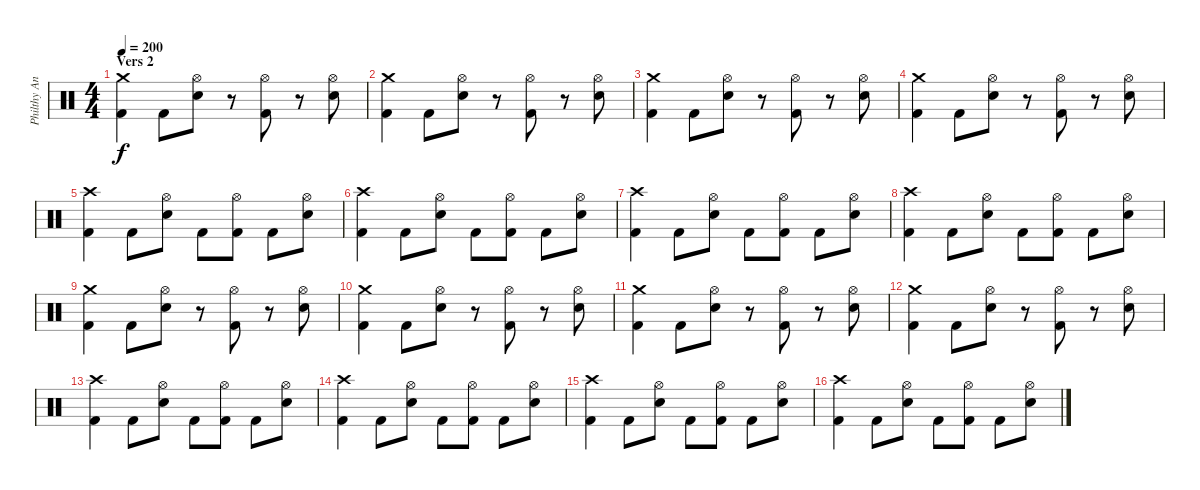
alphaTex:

\track ("Philthy Animal Taylor" "Philthy An") {instrument percussion}
\staff {score}
\articulation defaults
\ts (4 4)
\section ("" "Vers 2")
\tempo 200
\clef neutral
\ks c
("Crash medium (hit)" "Kick (hit) 2").4{dy f} "Kick (hit) 2".8 ("Hi-Hat (open)" "Electric Snare (hit)").8 r.8 ("Hi-Hat (open)" "Kick (hit) 2").8 r.8 ("Hi-Hat (open)" "Electric Snare (hit)").8 |
("Crash medium (hit)" "Kick (hit) 2").4 "Kick (hit) 2".8 ("Hi-Hat (open)" "Electric Snare (hit)").8 r.8 ("Hi-Hat (open)" "Kick (hit) 2").8 r.8 ("Hi-Hat (open)" "Electric Snare (hit)").8 |
("Crash medium (hit)" "Kick (hit) 2").4 "Kick (hit) 2".8 ("Hi-Hat (open)" "Electric Snare (hit)").8 r.8 ("Hi-Hat (open)" "Kick (hit) 2").8 r.8 ("Hi-Hat (open)" "Electric Snare (hit)").8 |
("Crash medium (hit)" "Kick (hit) 2").4 "Kick (hit) 2".8 ("Hi-Hat (open)" "Electric Snare (hit)").8 r.8 ("Hi-Hat (open)" "Kick (hit) 2").8 r.8 ("Hi-Hat (open)" "Electric Snare (hit)").8 |
("Crash high (hit)" "Kick (hit) 2").4 "Kick (hit) 2".8 ("Hi-Hat (open)" "Electric Snare (hit)").8 "Kick (hit) 2".8 ("Hi-Hat (open)" "Kick (hit) 2").8 "Kick (hit) 2".8 ("Hi-Hat (open)" "Electric Snare (hit)").8 |
("Crash high (hit)" "Kick (hit) 2").4 "Kick (hit) 2".8 ("Hi-Hat (open)" "Electric Snare (hit)").8 "Kick (hit) 2".8 ("Hi-Hat (open)" "Kick (hit) 2").8 "Kick (hit) 2".8 ("Hi-Hat (open)" "Electric Snare (hit)").8 |
("Crash high (hit)" "Kick (hit) 2").4 "Kick (hit) 2".8 ("Hi-Hat (open)" "Electric Snare (hit)").8 "Kick (hit) 2".8 ("Hi-Hat (open)" "Kick (hit) 2").8 "Kick (hit) 2".8 ("Hi-Hat (open)" "Electric Snare (hit)").8 |
("Crash high (hit)" "Kick (hit) 2").4 "Kick (hit) 2".8 ("Hi-Hat (open)" "Electric Snare (hit)").8 "Kick (hit) 2".8 ("Hi-Hat (open)" "Kick (hit) 2").8 "Kick (hit) 2".8 ("Hi-Hat (open)" "Electric Snare (hit)").8 |
("Crash medium (hit)" "Kick (hit) 2").4 "Kick (hit) 2".8 ("Hi-Hat (open)" "Electric Snare (hit)").8 r.8 ("Hi-Hat (open)" "Kick (hit) 2").8 r.8 ("Hi-Hat (open)" "Electric Snare (hit)").8 |
("Crash medium (hit)" "Kick (hit) 2").4 "Kick (hit) 2".8 ("Hi-Hat (open)" "Electric Snare (hit)").8 r.8 ("Hi-Hat (open)" "Kick (hit) 2").8 r.8 ("Hi-Hat (open)" "Electric Snare (hit)").8 |
("Crash medium (hit)" "Kick (hit) 2").4 "Kick (hit) 2".8 ("Hi-Hat (open)" "Electric Snare (hit)").8 r.8 ("Hi-Hat (open)" "Kick (hit) 2").8 r.8 ("Hi-Hat (open)" "Electric Snare (hit)").8 |
("Crash medium (hit)" "Kick (hit) 2").4 "Kick (hit) 2".8 ("Hi-Hat (open)" "Electric Snare (hit)").8 r.8 ("Hi-Hat (open)" "Kick (hit) 2").8 r.8 ("Hi-Hat (open)" "Electric Snare (hit)").8 |
("Crash high (hit)" "Kick (hit) 2").4 "Kick (hit) 2".8 ("Hi-Hat (open)" "Electric Snare (hit)").8 "Kick (hit) 2".8 ("Hi-Hat (open)" "Kick (hit) 2").8 "Kick (hit) 2".8 ("Hi-Hat (open)" "Electric Snare (hit)").8 |
("Crash high (hit)" "Kick (hit) 2").4 "Kick (hit) 2".8 ("Hi-Hat (open)" "Electric Snare (hit)").8 "Kick (hit) 2".8 ("Hi-Hat (open)" "Kick (hit) 2").8 "Kick (hit) 2".8 ("Hi-Hat (open)" "Electric Snare (hit)").8 |
("Crash high (hit)" "Kick (hit) 2").4 "Kick (hit) 2".8 ("Hi-Hat (open)" "Electric Snare (hit)").8 "Kick (hit) 2".8 ("Hi-Hat (open)" "Kick (hit) 2").8 "Kick (hit) 2".8 ("Hi-Hat (open)" "Electric Snare (hit)").8 |
("Crash high (hit)" "Kick (hit) 2").4 "Kick (hit) 2".8 ("Hi-Hat (open)" "Electric Snare (hit)").8 "Kick (hit) 2".8 ("Hi-Hat (open)" "Kick (hit) 2").8 "Kick (hit) 2".8 ("Hi-Hat (open)" "Electric Snare (hit)").8
